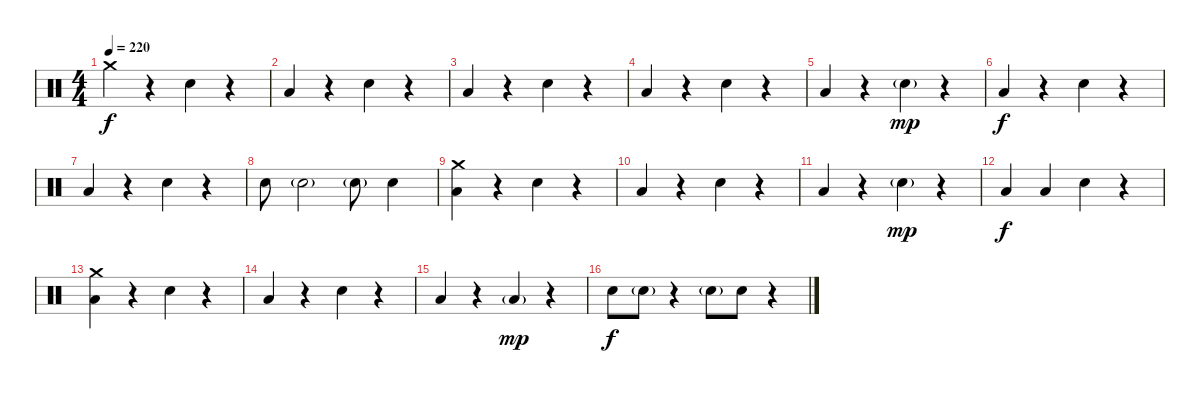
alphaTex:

\track "" {instrument percussion}
\staff {score}
\articulation defaults
\ts (4 4)
\tempo 220
\clef neutral
\ks c "Crash medium (hit)".4{dy f}
r.4 "Snare (hit) 2".4 r.4 |
"Low Tom (hit)".4 r.4 "Snare (hit) 2".4 r.4 |
"Low Tom (hit)".4 r.4 "Snare (hit) 2".4 r.4 |
"Low Tom (hit)".4 r.4 "Snare (hit) 2".4 r.4 |
"Low Tom (hit)".4 r.4 "Snare (hit) 2"{g}.4{dy mp} r.4 |
"Low Tom (hit)".4{dy f} r.4 "Snare (hit) 2".4 r.4 |
"Low Tom (hit)".4 r.4 "Snare (hit) 2".4 r.4 |
"Snare (hit) 2".8 "Snare (hit) 2"{g}.2 "Snare (hit) 2"{g}.8 "Snare (hit) 2".4 |
("Low Tom (hit)" "Crash medium (hit)").4 r.4 "Snare (hit) 2".4 r.4 |
"Low Tom (hit)".4 r.4 "Snare (hit) 2".4 r.4 |
"Low Tom (hit)".4 r.4 "Snare (hit) 2"{g}.4{dy mp} r.4 |
"Low Tom (hit)".4{dy f} "Low Tom (hit)".4 "Snare (hit) 2".4 r.4 |
("Low Tom (hit)" "Crash medium (hit)").4 r.4 "Snare (hit) 2".4 r.4 |
"Low Tom (hit)".4 r.4 "Snare (hit) 2".4 r.4 |
"Low Tom (hit)".4 r.4 "Low Tom (hit)"{g}.4{dy mp} r.4 |
"Snare (hit) 2".8{dy f} "Snare (hit) 2"{g}.8 r.4 "Snare (hit) 2"{g}.8 "Snare (hit) 2".8 r.4
